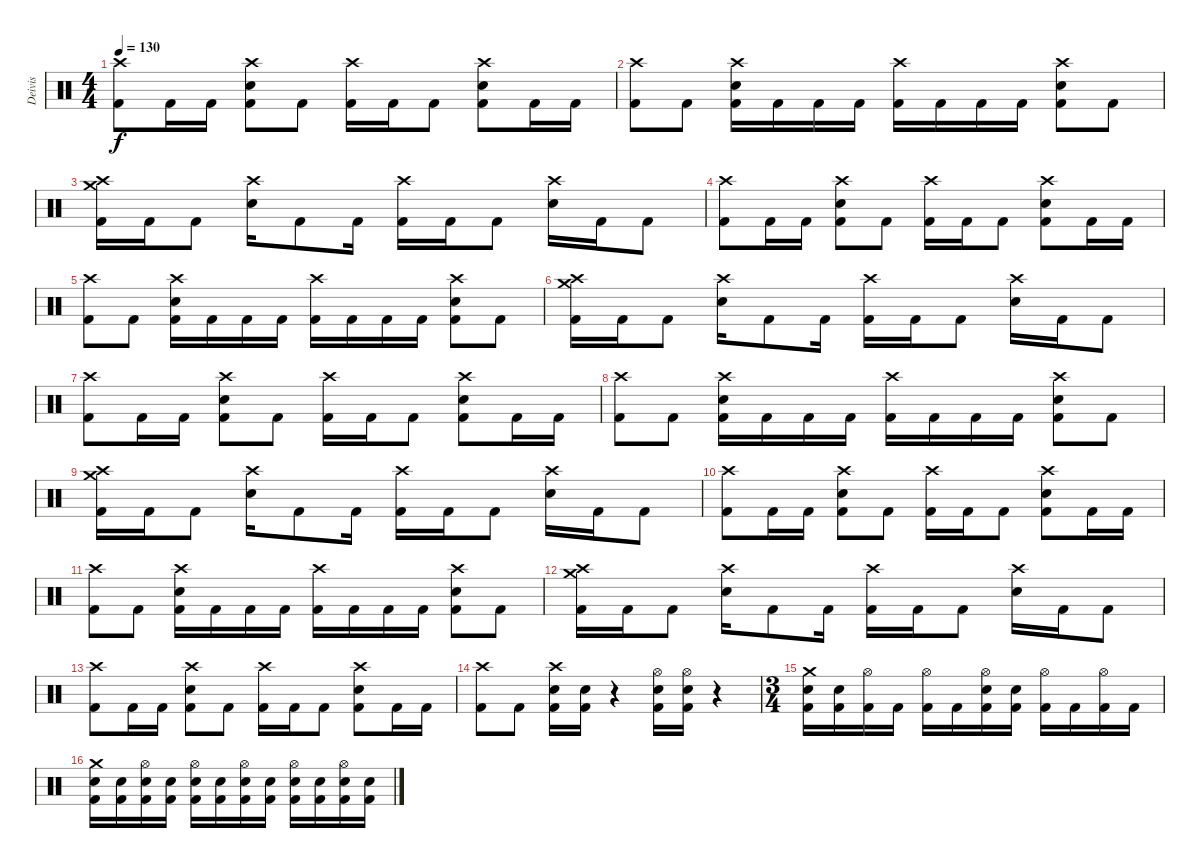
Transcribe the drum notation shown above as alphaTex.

\track ("Deivis" "Deivis") {instrument percussion}
\staff {score}
\articulation defaults
\ts (4 4)
\tempo 130
\clef neutral
\ks c
("Crash high (hit)" "Kick (hit) 2").8{dy f} "Kick (hit) 2".16 "Kick (hit) 2".16 ("Crash high (hit)" "Electric Snare (hit)" "Kick (hit) 2").8 "Kick (hit) 2".8 ("Crash high (hit)" "Kick (hit) 2").16 "Kick (hit) 2".16 "Kick (hit) 2".8 ("Crash high (hit)" "Electric Snare (hit)" "Kick (hit) 2").8 "Kick (hit) 2".16 "Kick (hit) 2".16 |
("Crash high (hit)" "Kick (hit) 2").8 "Kick (hit) 2".8 ("Crash high (hit)" "Electric Snare (hit)" "Kick (hit) 2").16 "Kick (hit) 2".16 "Kick (hit) 2".16 "Kick (hit) 2".16 ("Crash high (hit)" "Kick (hit) 2").16 "Kick (hit) 2".16 "Kick (hit) 2".16 "Kick (hit) 2".16 ("Crash high (hit)" "Electric Snare (hit)" "Kick (hit) 2").8 "Kick (hit) 2".8 |
("Crash medium (hit)" "Crash high (hit)" "Kick (hit) 2").16 "Kick (hit) 2".16 "Kick (hit) 2".8 ("Crash high (hit)" "Electric Snare (hit)").16 "Kick (hit) 2".8 "Kick (hit) 2".16 ("Crash high (hit)" "Kick (hit) 2").16 "Kick (hit) 2".16 "Kick (hit) 2".8 ("Crash high (hit)" "Electric Snare (hit)").16 "Kick (hit) 2".16 "Kick (hit) 2".8 |
("Crash high (hit)" "Kick (hit) 2").8 "Kick (hit) 2".16 "Kick (hit) 2".16 ("Crash high (hit)" "Electric Snare (hit)" "Kick (hit) 2").8 "Kick (hit) 2".8 ("Crash high (hit)" "Kick (hit) 2").16 "Kick (hit) 2".16 "Kick (hit) 2".8 ("Crash high (hit)" "Electric Snare (hit)" "Kick (hit) 2").8 "Kick (hit) 2".16 "Kick (hit) 2".16 |
("Crash high (hit)" "Kick (hit) 2").8 "Kick (hit) 2".8 ("Crash high (hit)" "Electric Snare (hit)" "Kick (hit) 2").16 "Kick (hit) 2".16 "Kick (hit) 2".16 "Kick (hit) 2".16 ("Crash high (hit)" "Kick (hit) 2").16 "Kick (hit) 2".16 "Kick (hit) 2".16 "Kick (hit) 2".16 ("Crash high (hit)" "Electric Snare (hit)" "Kick (hit) 2").8 "Kick (hit) 2".8 |
("Crash medium (hit)" "Crash high (hit)" "Kick (hit) 2").16 "Kick (hit) 2".16 "Kick (hit) 2".8 ("Crash high (hit)" "Electric Snare (hit)").16 "Kick (hit) 2".8 "Kick (hit) 2".16 ("Crash high (hit)" "Kick (hit) 2").16 "Kick (hit) 2".16 "Kick (hit) 2".8 ("Crash high (hit)" "Electric Snare (hit)").16 "Kick (hit) 2".16 "Kick (hit) 2".8 |
("Crash high (hit)" "Kick (hit) 2").8 "Kick (hit) 2".16 "Kick (hit) 2".16 ("Crash high (hit)" "Electric Snare (hit)" "Kick (hit) 2").8 "Kick (hit) 2".8 ("Crash high (hit)" "Kick (hit) 2").16 "Kick (hit) 2".16 "Kick (hit) 2".8 ("Crash high (hit)" "Electric Snare (hit)" "Kick (hit) 2").8 "Kick (hit) 2".16 "Kick (hit) 2".16 |
("Crash high (hit)" "Kick (hit) 2").8 "Kick (hit) 2".8 ("Crash high (hit)" "Electric Snare (hit)" "Kick (hit) 2").16 "Kick (hit) 2".16 "Kick (hit) 2".16 "Kick (hit) 2".16 ("Crash high (hit)" "Kick (hit) 2").16 "Kick (hit) 2".16 "Kick (hit) 2".16 "Kick (hit) 2".16 ("Crash high (hit)" "Electric Snare (hit)" "Kick (hit) 2").8 "Kick (hit) 2".8 |
("Crash medium (hit)" "Crash high (hit)" "Kick (hit) 2").16 "Kick (hit) 2".16 "Kick (hit) 2".8 ("Crash high (hit)" "Electric Snare (hit)").16 "Kick (hit) 2".8 "Kick (hit) 2".16 ("Crash high (hit)" "Kick (hit) 2").16 "Kick (hit) 2".16 "Kick (hit) 2".8 ("Crash high (hit)" "Electric Snare (hit)").16 "Kick (hit) 2".16 "Kick (hit) 2".8 |
("Crash high (hit)" "Kick (hit) 2").8 "Kick (hit) 2".16 "Kick (hit) 2".16 ("Crash high (hit)" "Electric Snare (hit)" "Kick (hit) 2").8 "Kick (hit) 2".8 ("Crash high (hit)" "Kick (hit) 2").16 "Kick (hit) 2".16 "Kick (hit) 2".8 ("Crash high (hit)" "Electric Snare (hit)" "Kick (hit) 2").8 "Kick (hit) 2".16 "Kick (hit) 2".16 |
("Crash high (hit)" "Kick (hit) 2").8 "Kick (hit) 2".8 ("Crash high (hit)" "Electric Snare (hit)" "Kick (hit) 2").16 "Kick (hit) 2".16 "Kick (hit) 2".16 "Kick (hit) 2".16 ("Crash high (hit)" "Kick (hit) 2").16 "Kick (hit) 2".16 "Kick (hit) 2".16 "Kick (hit) 2".16 ("Crash high (hit)" "Electric Snare (hit)" "Kick (hit) 2").8 "Kick (hit) 2".8 |
("Crash medium (hit)" "Crash high (hit)" "Kick (hit) 2").16 "Kick (hit) 2".16 "Kick (hit) 2".8 ("Crash high (hit)" "Electric Snare (hit)").16 "Kick (hit) 2".8 "Kick (hit) 2".16 ("Crash high (hit)" "Kick (hit) 2").16 "Kick (hit) 2".16 "Kick (hit) 2".8 ("Crash high (hit)" "Electric Snare (hit)").16 "Kick (hit) 2".16 "Kick (hit) 2".8 |
("Crash high (hit)" "Kick (hit) 2").8 "Kick (hit) 2".16 "Kick (hit) 2".16 ("Crash high (hit)" "Electric Snare (hit)" "Kick (hit) 2").8 "Kick (hit) 2".8 ("Crash high (hit)" "Kick (hit) 2").16 "Kick (hit) 2".16 "Kick (hit) 2".8 ("Crash high (hit)" "Electric Snare (hit)" "Kick (hit) 2").8 "Kick (hit) 2".16 "Kick (hit) 2".16 |
("Crash high (hit)" "Kick (hit) 2").8 "Kick (hit) 2".8 ("Crash high (hit)" "Electric Snare (hit)" "Kick (hit) 2").16 ("Electric Snare (hit)" "Kick (hit) 2").16 r.4 ("Hi-Hat (open)" "Electric Snare (hit)" "Kick (hit) 2").16 ("Hi-Hat (open)" "Electric Snare (hit)" "Kick (hit) 2").16 r.4 |
\ts (3 4)
("Crash medium (hit)" "Electric Snare (hit)" "Kick (hit) 2").16 ("Electric Snare (hit)" "Kick (hit) 2").16 ("Hi-Hat (open)" "Kick (hit) 2").16 "Kick (hit) 2".16 ("Hi-Hat (open)" "Kick (hit) 2").16 "Kick (hit) 2".16 ("Hi-Hat (open)" "Electric Snare (hit)" "Kick (hit) 2").16 ("Electric Snare (hit)" "Kick (hit) 2").16 ("Hi-Hat (open)" "Kick (hit) 2").16 "Kick (hit) 2".16 ("Hi-Hat (open)" "Kick (hit) 2").16 "Kick (hit) 2".16 |
("Crash medium (hit)" "Electric Snare (hit)" "Kick (hit) 2").16 ("Electric Snare (hit)" "Kick (hit) 2").16 ("Hi-Hat (open)" "Electric Snare (hit)" "Kick (hit) 2").16 ("Electric Snare (hit)" "Kick (hit) 2").16 ("Hi-Hat (open)" "Electric Snare (hit)" "Kick (hit) 2").16 ("Electric Snare (hit)" "Kick (hit) 2").16 ("Hi-Hat (open)" "Electric Snare (hit)" "Kick (hit) 2").16 ("Electric Snare (hit)" "Kick (hit) 2").16 ("Hi-Hat (open)" "Electric Snare (hit)" "Kick (hit) 2").16 ("Electric Snare (hit)" "Kick (hit) 2").16 ("Hi-Hat (open)" "Electric Snare (hit)" "Kick (hit) 2").16 ("Electric Snare (hit)" "Kick (hit) 2").16
